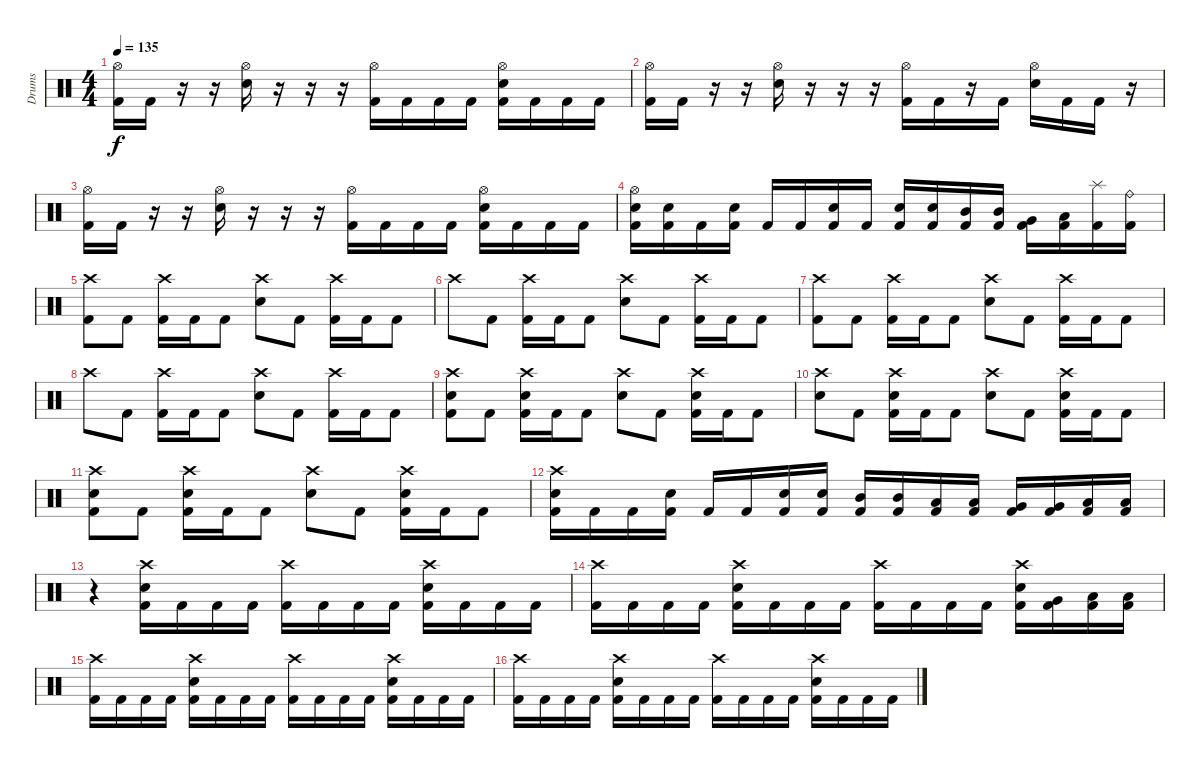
\track ("Drums" "Drums") {instrument percussion}
\staff {score}
\articulation defaults
\ts (4 4)
\tempo 135
\clef neutral
\ks c
("Hi-Hat (open)" "Kick (hit) 2").16{dy f} "Kick (hit) 2".16 r.16 r.16 ("Hi-Hat (open)" "Electric Snare (hit)").16 r.16 r.16 r.16 ("Hi-Hat (open)" "Kick (hit) 2").16 "Kick (hit) 2".16 "Kick (hit) 2".16 "Kick (hit) 2".16 ("Hi-Hat (open)" "Kick (hit) 2" "Electric Snare (hit)").16 "Kick (hit) 2".16 "Kick (hit) 2".16 "Kick (hit) 2".16 |
("Hi-Hat (open)" "Kick (hit) 2").16 "Kick (hit) 2".16 r.16 r.16 ("Hi-Hat (open)" "Electric Snare (hit)").16 r.16 r.16 r.16 ("Hi-Hat (open)" "Kick (hit) 2").16 "Kick (hit) 2".16 r.16 "Kick (hit) 2".16 ("Hi-Hat (open)" "Electric Snare (hit)").16 "Kick (hit) 2".16 "Kick (hit) 2".16 r.16 |
("Hi-Hat (open)" "Kick (hit) 2").16 "Kick (hit) 2".16 r.16 r.16 ("Hi-Hat (open)" "Electric Snare (hit)").16 r.16 r.16 r.16 ("Hi-Hat (open)" "Kick (hit) 2").16 "Kick (hit) 2".16 "Kick (hit) 2".16 "Kick (hit) 2".16 ("Hi-Hat (open)" "Kick (hit) 2" "Electric Snare (hit)").16 "Kick (hit) 2".16 "Kick (hit) 2".16 "Kick (hit) 2".16 |
("Hi-Hat (open)" "Kick (hit) 2" "Electric Snare (hit)").16 ("Kick (hit) 2" "Electric Snare (hit)").16 "Kick (hit) 2".16 ("Kick (hit) 2" "Electric Snare (hit)").16 "Kick (hit) 2".16 "Kick (hit) 2".16 ("Kick (hit) 2" "Electric Snare (hit)").16 "Kick (hit) 2".16 ("Kick (hit) 2" "Electric Snare (hit)").16 ("Kick (hit) 2" "Electric Snare (hit)").16 ("Kick (hit) 2" "Mid Tom (hit)").16 ("Kick (hit) 2" "Mid Tom (hit)").16 ("Kick (hit) 2" "Very Low Tom (hit)").16 ("Kick (hit) 2" "Low Floor Tom (hit)").16 ("Kick (hit) 2" "Splash (hit)").16 ("Kick (hit) 2" "Ride (bell)").16 |
("Crash high (hit)" "Kick (hit) 2").8 "Kick (hit) 2".8 ("Crash high (hit)" "Kick (hit) 2").16 "Kick (hit) 2".16 "Kick (hit) 2".8 ("Crash high (hit)" "Electric Snare (hit)").8 "Kick (hit) 2".8 ("Crash high (hit)" "Kick (hit) 2").16 "Kick (hit) 2".16 "Kick (hit) 2".8 |
"Crash high (hit)".8 "Kick (hit) 2".8 ("Crash high (hit)" "Kick (hit) 2").16 "Kick (hit) 2".16 "Kick (hit) 2".8 ("Crash high (hit)" "Electric Snare (hit)").8 "Kick (hit) 2".8 ("Crash high (hit)" "Kick (hit) 2").16 "Kick (hit) 2".16 "Kick (hit) 2".8 |
("Crash high (hit)" "Kick (hit) 2").8 "Kick (hit) 2".8 ("Crash high (hit)" "Kick (hit) 2").16 "Kick (hit) 2".16 "Kick (hit) 2".8 ("Crash high (hit)" "Electric Snare (hit)").8 "Kick (hit) 2".8 ("Crash high (hit)" "Kick (hit) 2").16 "Kick (hit) 2".16 "Kick (hit) 2".8 |
"Crash high (hit)".8 "Kick (hit) 2".8 ("Crash high (hit)" "Kick (hit) 2").16 "Kick (hit) 2".16 "Kick (hit) 2".8 ("Crash high (hit)" "Electric Snare (hit)").8 "Kick (hit) 2".8 ("Crash high (hit)" "Kick (hit) 2").16 "Kick (hit) 2".16 "Kick (hit) 2".8 |
("Crash high (hit)" "Kick (hit) 2" "Electric Snare (hit)").8 "Kick (hit) 2".8 ("Crash high (hit)" "Kick (hit) 2" "Electric Snare (hit)").16 "Kick (hit) 2".16 "Kick (hit) 2".8 ("Crash high (hit)" "Electric Snare (hit)").8 "Kick (hit) 2".8 ("Crash high (hit)" "Kick (hit) 2" "Electric Snare (hit)").16 "Kick (hit) 2".16 "Kick (hit) 2".8 |
("Crash high (hit)" "Electric Snare (hit)").8 "Kick (hit) 2".8 ("Crash high (hit)" "Kick (hit) 2" "Electric Snare (hit)").16 "Kick (hit) 2".16 "Kick (hit) 2".8 ("Crash high (hit)" "Electric Snare (hit)").8 "Kick (hit) 2".8 ("Crash high (hit)" "Kick (hit) 2" "Electric Snare (hit)").16 "Kick (hit) 2".16 "Kick (hit) 2".8 |
("Crash high (hit)" "Kick (hit) 2" "Electric Snare (hit)").8 "Kick (hit) 2".8 ("Crash high (hit)" "Kick (hit) 2" "Electric Snare (hit)").16 "Kick (hit) 2".16 "Kick (hit) 2".8 ("Crash high (hit)" "Electric Snare (hit)").8 "Kick (hit) 2".8 ("Crash high (hit)" "Kick (hit) 2" "Electric Snare (hit)").16 "Kick (hit) 2".16 "Kick (hit) 2".8 |
("Crash high (hit)" "Kick (hit) 2" "Electric Snare (hit)").16 "Kick (hit) 2".16 "Kick (hit) 2".16 ("Kick (hit) 2" "Electric Snare (hit)").16 "Kick (hit) 2".16 "Kick (hit) 2".16 ("Kick (hit) 2" "Electric Snare (hit)").16 ("Kick (hit) 2" "Electric Snare (hit)").16 ("Kick (hit) 2" "Mid Tom (hit)").16 ("Kick (hit) 2" "Mid Tom (hit)").16 ("Kick (hit) 2" "Low Tom (hit)").16 ("Kick (hit) 2" "Low Tom (hit)").16 ("Kick (hit) 2" "Very Low Tom (hit)").16 ("Kick (hit) 2" "Very Low Tom (hit)").16 ("Kick (hit) 2" "Low Floor Tom (hit)").16 ("Kick (hit) 2" "Low Floor Tom (hit)").16 |
r.4 ("Crash high (hit)" "Kick (hit) 2" "Electric Snare (hit)").16 "Kick (hit) 2".16 "Kick (hit) 2".16 "Kick (hit) 2".16 ("Crash high (hit)" "Kick (hit) 2").16 "Kick (hit) 2".16 "Kick (hit) 2".16 "Kick (hit) 2".16 ("Crash high (hit)" "Kick (hit) 2" "Electric Snare (hit)").16 "Kick (hit) 2".16 "Kick (hit) 2".16 "Kick (hit) 2".16 |
("Crash high (hit)" "Kick (hit) 2").16 "Kick (hit) 2".16 "Kick (hit) 2".16 "Kick (hit) 2".16 ("Crash high (hit)" "Kick (hit) 2" "Electric Snare (hit)").16 "Kick (hit) 2".16 "Kick (hit) 2".16 "Kick (hit) 2".16 ("Crash high (hit)" "Kick (hit) 2").16 "Kick (hit) 2".16 "Kick (hit) 2".16 "Kick (hit) 2".16 ("Crash high (hit)" "Kick (hit) 2" "Electric Snare (hit)").16 ("Kick (hit) 2" "Very Low Tom (hit)").16 ("Kick (hit) 2" "Low Floor Tom (hit)").16 ("Kick (hit) 2" "Low Floor Tom (hit)").16 |
("Crash high (hit)" "Kick (hit) 2").16 "Kick (hit) 2".16 "Kick (hit) 2".16 "Kick (hit) 2".16 ("Crash high (hit)" "Kick (hit) 2" "Electric Snare (hit)").16 "Kick (hit) 2".16 "Kick (hit) 2".16 "Kick (hit) 2".16 ("Crash high (hit)" "Kick (hit) 2").16 "Kick (hit) 2".16 "Kick (hit) 2".16 "Kick (hit) 2".16 ("Crash high (hit)" "Kick (hit) 2" "Electric Snare (hit)").16 "Kick (hit) 2".16 "Kick (hit) 2".16 "Kick (hit) 2".16 |
("Crash high (hit)" "Kick (hit) 2").16 "Kick (hit) 2".16 "Kick (hit) 2".16 "Kick (hit) 2".16 ("Crash high (hit)" "Kick (hit) 2" "Electric Snare (hit)").16 "Kick (hit) 2".16 "Kick (hit) 2".16 "Kick (hit) 2".16 ("Crash high (hit)" "Kick (hit) 2").16 "Kick (hit) 2".16 "Kick (hit) 2".16 "Kick (hit) 2".16 ("Crash high (hit)" "Kick (hit) 2" "Electric Snare (hit)").16 "Kick (hit) 2".16 "Kick (hit) 2".16 "Kick (hit) 2".16
